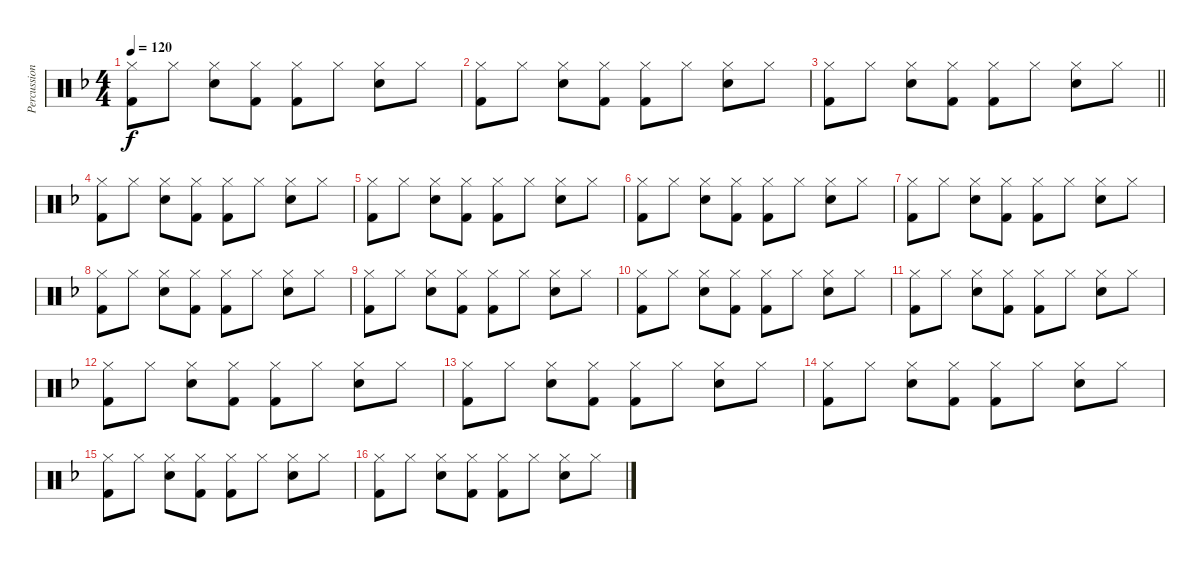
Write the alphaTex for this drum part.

\track ("Percussion" "Percussion") {instrument percussion}
\staff {score}
\articulation defaults
\ts (4 4)
\tempo 120
\clef neutral
\ks f
("Hi-Hat (closed)" "Kick (hit) 2").8{dy f} "Hi-Hat (closed)".8 ("Hi-Hat (closed)" "Snare (hit) 2").8 ("Hi-Hat (closed)" "Kick (hit) 2").8 ("Hi-Hat (closed)" "Kick (hit) 2").8 "Hi-Hat (closed)".8 ("Hi-Hat (closed)" "Snare (hit) 2").8 "Hi-Hat (closed)".8 |
("Hi-Hat (closed)" "Kick (hit) 2").8 "Hi-Hat (closed)".8 ("Hi-Hat (closed)" "Snare (hit) 2").8 ("Hi-Hat (closed)" "Kick (hit) 2").8 ("Hi-Hat (closed)" "Kick (hit) 2").8 "Hi-Hat (closed)".8 ("Hi-Hat (closed)" "Snare (hit) 2").8 "Hi-Hat (closed)".8 |
\barLineRight lightlight
("Hi-Hat (closed)" "Kick (hit) 2").8 "Hi-Hat (closed)".8 ("Hi-Hat (closed)" "Snare (hit) 2").8 ("Hi-Hat (closed)" "Kick (hit) 2").8 ("Hi-Hat (closed)" "Kick (hit) 2").8 "Hi-Hat (closed)".8 ("Hi-Hat (closed)" "Snare (hit) 2").8 "Hi-Hat (closed)".8 |
("Hi-Hat (closed)" "Kick (hit) 2").8 "Hi-Hat (closed)".8 ("Hi-Hat (closed)" "Snare (hit) 2").8 ("Hi-Hat (closed)" "Kick (hit) 2").8 ("Hi-Hat (closed)" "Kick (hit) 2").8 "Hi-Hat (closed)".8 ("Hi-Hat (closed)" "Snare (hit) 2").8 "Hi-Hat (closed)".8 |
("Hi-Hat (closed)" "Kick (hit) 2").8 "Hi-Hat (closed)".8 ("Hi-Hat (closed)" "Snare (hit) 2").8 ("Hi-Hat (closed)" "Kick (hit) 2").8 ("Hi-Hat (closed)" "Kick (hit) 2").8 "Hi-Hat (closed)".8 ("Hi-Hat (closed)" "Snare (hit) 2").8 "Hi-Hat (closed)".8 |
("Hi-Hat (closed)" "Kick (hit) 2").8 "Hi-Hat (closed)".8 ("Hi-Hat (closed)" "Snare (hit) 2").8 ("Hi-Hat (closed)" "Kick (hit) 2").8 ("Hi-Hat (closed)" "Kick (hit) 2").8 "Hi-Hat (closed)".8 ("Hi-Hat (closed)" "Snare (hit) 2").8 "Hi-Hat (closed)".8 |
("Hi-Hat (closed)" "Kick (hit) 2").8 "Hi-Hat (closed)".8 ("Hi-Hat (closed)" "Snare (hit) 2").8 ("Hi-Hat (closed)" "Kick (hit) 2").8 ("Hi-Hat (closed)" "Kick (hit) 2").8 "Hi-Hat (closed)".8 ("Hi-Hat (closed)" "Snare (hit) 2").8 "Hi-Hat (closed)".8 |
("Hi-Hat (closed)" "Kick (hit) 2").8 "Hi-Hat (closed)".8 ("Hi-Hat (closed)" "Snare (hit) 2").8 ("Hi-Hat (closed)" "Kick (hit) 2").8 ("Hi-Hat (closed)" "Kick (hit) 2").8 "Hi-Hat (closed)".8 ("Hi-Hat (closed)" "Snare (hit) 2").8 "Hi-Hat (closed)".8 |
("Hi-Hat (closed)" "Kick (hit) 2").8 "Hi-Hat (closed)".8 ("Hi-Hat (closed)" "Snare (hit) 2").8 ("Hi-Hat (closed)" "Kick (hit) 2").8 ("Hi-Hat (closed)" "Kick (hit) 2").8 "Hi-Hat (closed)".8 ("Hi-Hat (closed)" "Snare (hit) 2").8 "Hi-Hat (closed)".8 |
("Hi-Hat (closed)" "Kick (hit) 2").8 "Hi-Hat (closed)".8 ("Hi-Hat (closed)" "Snare (hit) 2").8 ("Hi-Hat (closed)" "Kick (hit) 2").8 ("Hi-Hat (closed)" "Kick (hit) 2").8 "Hi-Hat (closed)".8 ("Hi-Hat (closed)" "Snare (hit) 2").8 "Hi-Hat (closed)".8 |
("Hi-Hat (closed)" "Kick (hit) 2").8 "Hi-Hat (closed)".8 ("Hi-Hat (closed)" "Snare (hit) 2").8 ("Hi-Hat (closed)" "Kick (hit) 2").8 ("Hi-Hat (closed)" "Kick (hit) 2").8 "Hi-Hat (closed)".8 ("Hi-Hat (closed)" "Snare (hit) 2").8 "Hi-Hat (closed)".8 |
("Hi-Hat (closed)" "Kick (hit) 2").8 "Hi-Hat (closed)".8 ("Hi-Hat (closed)" "Snare (hit) 2").8 ("Hi-Hat (closed)" "Kick (hit) 2").8 ("Hi-Hat (closed)" "Kick (hit) 2").8 "Hi-Hat (closed)".8 ("Hi-Hat (closed)" "Snare (hit) 2").8 "Hi-Hat (closed)".8 |
("Hi-Hat (closed)" "Kick (hit) 2").8 "Hi-Hat (closed)".8 ("Hi-Hat (closed)" "Snare (hit) 2").8 ("Hi-Hat (closed)" "Kick (hit) 2").8 ("Hi-Hat (closed)" "Kick (hit) 2").8 "Hi-Hat (closed)".8 ("Hi-Hat (closed)" "Snare (hit) 2").8 "Hi-Hat (closed)".8 |
("Hi-Hat (closed)" "Kick (hit) 2").8 "Hi-Hat (closed)".8 ("Hi-Hat (closed)" "Snare (hit) 2").8 ("Hi-Hat (closed)" "Kick (hit) 2").8 ("Hi-Hat (closed)" "Kick (hit) 2").8 "Hi-Hat (closed)".8 ("Hi-Hat (closed)" "Snare (hit) 2").8 "Hi-Hat (closed)".8 |
("Hi-Hat (closed)" "Kick (hit) 2").8 "Hi-Hat (closed)".8 ("Hi-Hat (closed)" "Snare (hit) 2").8 ("Hi-Hat (closed)" "Kick (hit) 2").8 ("Hi-Hat (closed)" "Kick (hit) 2").8 "Hi-Hat (closed)".8 ("Hi-Hat (closed)" "Snare (hit) 2").8 "Hi-Hat (closed)".8 |
("Hi-Hat (closed)" "Kick (hit) 2").8 "Hi-Hat (closed)".8 ("Hi-Hat (closed)" "Snare (hit) 2").8 ("Hi-Hat (closed)" "Kick (hit) 2").8 ("Hi-Hat (closed)" "Kick (hit) 2").8 "Hi-Hat (closed)".8 ("Hi-Hat (closed)" "Snare (hit) 2").8 "Hi-Hat (closed)".8
